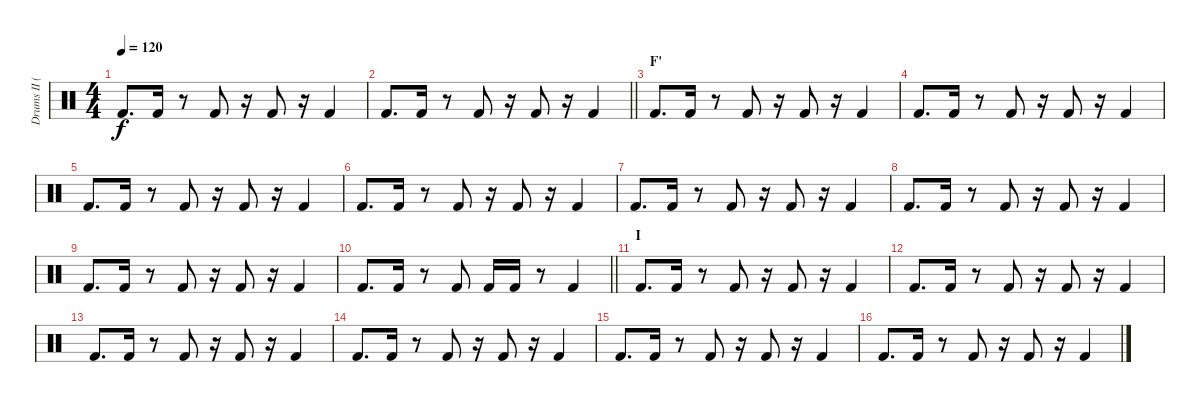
\track ("Drums II (Ruka)" "Drums II (") {instrument percussion}
\staff {score}
\articulation defaults
\ts (4 4)
\tempo 120
\clef neutral
\ks c "Kick (hit) 2".8{d dy f} "Kick (hit) 2".16
r.8 "Kick (hit) 2".8 r.16 "Kick (hit) 2".8 r.16 "Kick (hit) 2".4 |
\barLineRight lightlight "Kick (hit) 2".8{d} "Kick (hit) 2".16
r.8 "Kick (hit) 2".8 r.16 "Kick (hit) 2".8 r.16 "Kick (hit) 2".4 |
\section ("" "F'")
"Kick (hit) 2".8{d} "Kick (hit) 2".16 r.8 "Kick (hit) 2".8 r.16 "Kick (hit) 2".8 r.16 "Kick (hit) 2".4 |
"Kick (hit) 2".8{d} "Kick (hit) 2".16 r.8 "Kick (hit) 2".8 r.16 "Kick (hit) 2".8 r.16 "Kick (hit) 2".4 |
"Kick (hit) 2".8{d} "Kick (hit) 2".16 r.8 "Kick (hit) 2".8 r.16 "Kick (hit) 2".8 r.16 "Kick (hit) 2".4 |
"Kick (hit) 2".8{d} "Kick (hit) 2".16 r.8 "Kick (hit) 2".8 r.16 "Kick (hit) 2".8 r.16 "Kick (hit) 2".4 |
"Kick (hit) 2".8{d} "Kick (hit) 2".16 r.8 "Kick (hit) 2".8 r.16 "Kick (hit) 2".8 r.16 "Kick (hit) 2".4 |
"Kick (hit) 2".8{d} "Kick (hit) 2".16 r.8 "Kick (hit) 2".8 r.16 "Kick (hit) 2".8 r.16 "Kick (hit) 2".4 |
"Kick (hit) 2".8{d} "Kick (hit) 2".16 r.8 "Kick (hit) 2".8 r.16 "Kick (hit) 2".8 r.16 "Kick (hit) 2".4 |
\barLineRight lightlight "Kick (hit) 2".8{d} "Kick (hit) 2".16
r.8 "Kick (hit) 2".8 "Kick (hit) 2".16 "Kick (hit) 2".16 r.8 "Kick (hit) 2".4 |
\section ("" "I")
"Kick (hit) 2".8{d} "Kick (hit) 2".16 r.8 "Kick (hit) 2".8 r.16 "Kick (hit) 2".8 r.16 "Kick (hit) 2".4 |
"Kick (hit) 2".8{d} "Kick (hit) 2".16 r.8 "Kick (hit) 2".8 r.16 "Kick (hit) 2".8 r.16 "Kick (hit) 2".4 |
"Kick (hit) 2".8{d} "Kick (hit) 2".16 r.8 "Kick (hit) 2".8 r.16 "Kick (hit) 2".8 r.16 "Kick (hit) 2".4 |
"Kick (hit) 2".8{d} "Kick (hit) 2".16 r.8 "Kick (hit) 2".8 r.16 "Kick (hit) 2".8 r.16 "Kick (hit) 2".4 |
"Kick (hit) 2".8{d} "Kick (hit) 2".16 r.8 "Kick (hit) 2".8 r.16 "Kick (hit) 2".8 r.16 "Kick (hit) 2".4 |
"Kick (hit) 2".8{d} "Kick (hit) 2".16 r.8 "Kick (hit) 2".8 r.16 "Kick (hit) 2".8 r.16 "Kick (hit) 2".4
